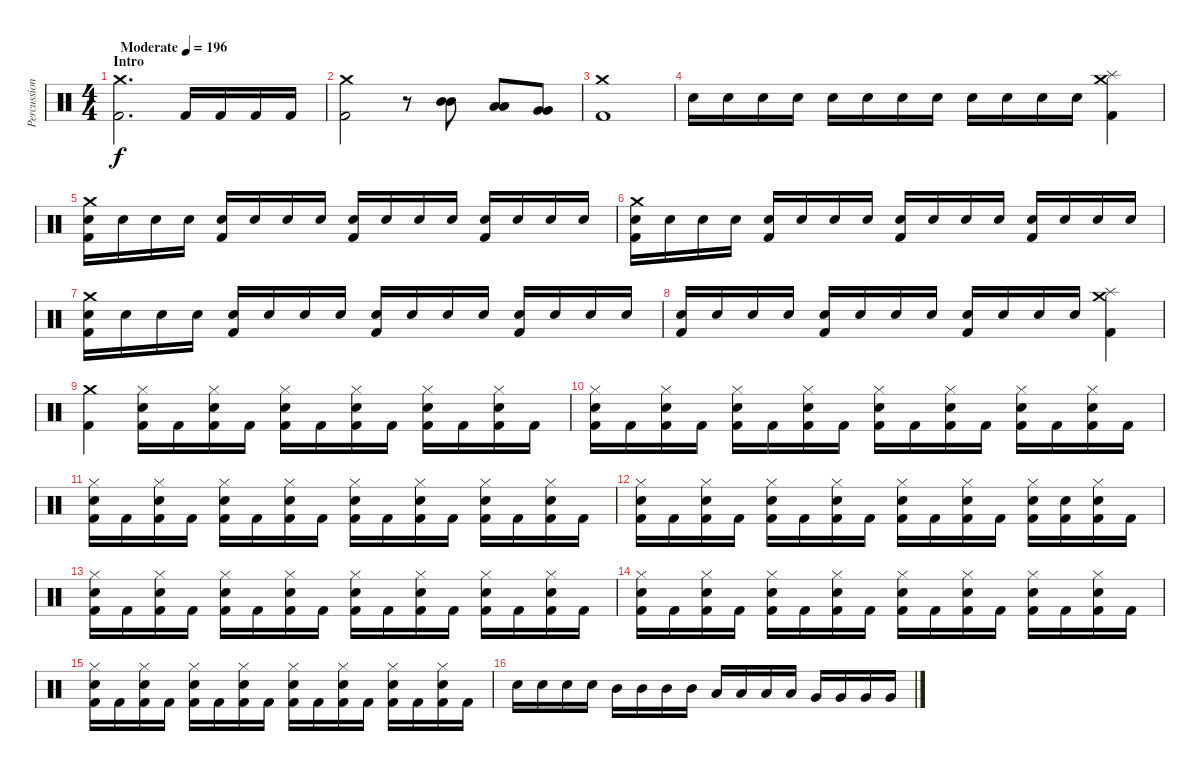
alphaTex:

\track ("Percussion" "Percussion") {instrument percussion}
\staff {score}
\articulation defaults
\ts (4 4)
\section ("" "Intro")
\tempo (196 "Moderate")
\clef neutral
\ks c
("Crash medium (hit)" "Kick (hit) 2").2{d dy f} "Kick (hit) 2".16 "Kick (hit) 2".16 "Kick (hit) 2".16 "Kick (hit) 2".16 |
("Crash medium (hit)" "Kick (hit) 2").2 r.8 ("Mid Tom (hit)" "Mid Tom (hit)").8 ("Low Tom (hit)" "Low Tom (hit)").8 ("Very Low Tom (hit)" "Very Low Tom (hit)").8 |
("Crash medium (hit)" "Kick (hit) 2").1 |
"Electric Snare (hit)".16 "Electric Snare (hit)".16 "Electric Snare (hit)".16 "Electric Snare (hit)".16 "Electric Snare (hit)".16 "Electric Snare (hit)".16 "Electric Snare (hit)".16 "Electric Snare (hit)".16 "Electric Snare (hit)".16 "Electric Snare (hit)".16 "Electric Snare (hit)".16 "Electric Snare (hit)".16 ("Crash medium (hit)" "Splash (hit)" "Kick (hit) 2").4 |
("Crash medium (hit)" "Electric Snare (hit)" "Kick (hit) 2").16 "Electric Snare (hit)".16 "Electric Snare (hit)".16 "Electric Snare (hit)".16 ("Electric Snare (hit)" "Kick (hit) 2").16 "Electric Snare (hit)".16 "Electric Snare (hit)".16 "Electric Snare (hit)".16 ("Electric Snare (hit)" "Kick (hit) 2").16 "Electric Snare (hit)".16 "Electric Snare (hit)".16 "Electric Snare (hit)".16 ("Electric Snare (hit)" "Kick (hit) 2").16 "Electric Snare (hit)".16 "Electric Snare (hit)".16 "Electric Snare (hit)".16 |
("Crash medium (hit)" "Electric Snare (hit)" "Kick (hit) 2").16 "Electric Snare (hit)".16 "Electric Snare (hit)".16 "Electric Snare (hit)".16 ("Electric Snare (hit)" "Kick (hit) 2").16 "Electric Snare (hit)".16 "Electric Snare (hit)".16 "Electric Snare (hit)".16 ("Electric Snare (hit)" "Kick (hit) 2").16 "Electric Snare (hit)".16 "Electric Snare (hit)".16 "Electric Snare (hit)".16 ("Electric Snare (hit)" "Kick (hit) 2").16 "Electric Snare (hit)".16 "Electric Snare (hit)".16 "Electric Snare (hit)".16 |
("Crash medium (hit)" "Electric Snare (hit)" "Kick (hit) 2").16 "Electric Snare (hit)".16 "Electric Snare (hit)".16 "Electric Snare (hit)".16 ("Electric Snare (hit)" "Kick (hit) 2").16 "Electric Snare (hit)".16 "Electric Snare (hit)".16 "Electric Snare (hit)".16 ("Electric Snare (hit)" "Kick (hit) 2").16 "Electric Snare (hit)".16 "Electric Snare (hit)".16 "Electric Snare (hit)".16 ("Electric Snare (hit)" "Kick (hit) 2").16 "Electric Snare (hit)".16 "Electric Snare (hit)".16 "Electric Snare (hit)".16 |
("Electric Snare (hit)" "Kick (hit) 2").16 "Electric Snare (hit)".16 "Electric Snare (hit)".16 "Electric Snare (hit)".16 ("Electric Snare (hit)" "Kick (hit) 2").16 "Electric Snare (hit)".16 "Electric Snare (hit)".16 "Electric Snare (hit)".16 ("Electric Snare (hit)" "Kick (hit) 2").16 "Electric Snare (hit)".16 "Electric Snare (hit)".16 "Electric Snare (hit)".16 ("Crash medium (hit)" "Splash (hit)" "Kick (hit) 2").4 |
("Crash medium (hit)" "Kick (hit) 2").4 ("Hi-Hat (closed)" "Electric Snare (hit)" "Kick (hit) 2").16 "Kick (hit) 2".16 ("Hi-Hat (closed)" "Electric Snare (hit)" "Kick (hit) 2").16 "Kick (hit) 2".16 ("Hi-Hat (closed)" "Electric Snare (hit)" "Kick (hit) 2").16 "Kick (hit) 2".16 ("Hi-Hat (closed)" "Electric Snare (hit)" "Kick (hit) 2").16 "Kick (hit) 2".16 ("Hi-Hat (closed)" "Electric Snare (hit)" "Kick (hit) 2").16 "Kick (hit) 2".16 ("Hi-Hat (closed)" "Electric Snare (hit)" "Kick (hit) 2").16 "Kick (hit) 2".16 |
("Hi-Hat (closed)" "Electric Snare (hit)" "Kick (hit) 2").16 "Kick (hit) 2".16 ("Hi-Hat (closed)" "Electric Snare (hit)" "Kick (hit) 2").16 "Kick (hit) 2".16 ("Hi-Hat (closed)" "Electric Snare (hit)" "Kick (hit) 2").16 "Kick (hit) 2".16 ("Hi-Hat (closed)" "Electric Snare (hit)" "Kick (hit) 2").16 "Kick (hit) 2".16 ("Hi-Hat (closed)" "Electric Snare (hit)" "Kick (hit) 2").16 "Kick (hit) 2".16 ("Hi-Hat (closed)" "Electric Snare (hit)" "Kick (hit) 2").16 "Kick (hit) 2".16 ("Hi-Hat (closed)" "Electric Snare (hit)" "Kick (hit) 2").16 "Kick (hit) 2".16 ("Hi-Hat (closed)" "Electric Snare (hit)" "Kick (hit) 2").16 "Kick (hit) 2".16 |
("Hi-Hat (closed)" "Electric Snare (hit)" "Kick (hit) 2").16 "Kick (hit) 2".16 ("Hi-Hat (closed)" "Electric Snare (hit)" "Kick (hit) 2").16 "Kick (hit) 2".16 ("Hi-Hat (closed)" "Electric Snare (hit)" "Kick (hit) 2").16 "Kick (hit) 2".16 ("Hi-Hat (closed)" "Electric Snare (hit)" "Kick (hit) 2").16 "Kick (hit) 2".16 ("Hi-Hat (closed)" "Electric Snare (hit)" "Kick (hit) 2").16 "Kick (hit) 2".16 ("Hi-Hat (closed)" "Electric Snare (hit)" "Kick (hit) 2").16 "Kick (hit) 2".16 ("Hi-Hat (closed)" "Electric Snare (hit)" "Kick (hit) 2").16 "Kick (hit) 2".16 ("Hi-Hat (closed)" "Electric Snare (hit)" "Kick (hit) 2").16 "Kick (hit) 2".16 |
("Hi-Hat (closed)" "Electric Snare (hit)" "Kick (hit) 2").16 "Kick (hit) 2".16 ("Hi-Hat (closed)" "Electric Snare (hit)" "Kick (hit) 2").16 "Kick (hit) 2".16 ("Hi-Hat (closed)" "Electric Snare (hit)" "Kick (hit) 2").16 "Kick (hit) 2".16 ("Hi-Hat (closed)" "Electric Snare (hit)" "Kick (hit) 2").16 "Kick (hit) 2".16 ("Hi-Hat (closed)" "Electric Snare (hit)" "Kick (hit) 2").16 "Kick (hit) 2".16 ("Hi-Hat (closed)" "Electric Snare (hit)" "Kick (hit) 2").16 "Kick (hit) 2".16 ("Hi-Hat (closed)" "Electric Snare (hit)" "Kick (hit) 2").16 ("Electric Snare (hit)" "Kick (hit) 2").16 ("Hi-Hat (closed)" "Electric Snare (hit)" "Kick (hit) 2").16 "Kick (hit) 2".16 |
("Hi-Hat (closed)" "Electric Snare (hit)" "Kick (hit) 2").16 "Kick (hit) 2".16 ("Hi-Hat (closed)" "Electric Snare (hit)" "Kick (hit) 2").16 "Kick (hit) 2".16 ("Hi-Hat (closed)" "Electric Snare (hit)" "Kick (hit) 2").16 "Kick (hit) 2".16 ("Hi-Hat (closed)" "Electric Snare (hit)" "Kick (hit) 2").16 "Kick (hit) 2".16 ("Hi-Hat (closed)" "Electric Snare (hit)" "Kick (hit) 2").16 "Kick (hit) 2".16 ("Hi-Hat (closed)" "Electric Snare (hit)" "Kick (hit) 2").16 "Kick (hit) 2".16 ("Hi-Hat (closed)" "Electric Snare (hit)" "Kick (hit) 2").16 "Kick (hit) 2".16 ("Hi-Hat (closed)" "Electric Snare (hit)" "Kick (hit) 2").16 "Kick (hit) 2".16 |
("Hi-Hat (closed)" "Electric Snare (hit)" "Kick (hit) 2").16 "Kick (hit) 2".16 ("Hi-Hat (closed)" "Electric Snare (hit)" "Kick (hit) 2").16 "Kick (hit) 2".16 ("Hi-Hat (closed)" "Electric Snare (hit)" "Kick (hit) 2").16 "Kick (hit) 2".16 ("Hi-Hat (closed)" "Electric Snare (hit)" "Kick (hit) 2").16 "Kick (hit) 2".16 ("Hi-Hat (closed)" "Electric Snare (hit)" "Kick (hit) 2").16 "Kick (hit) 2".16 ("Hi-Hat (closed)" "Electric Snare (hit)" "Kick (hit) 2").16 "Kick (hit) 2".16 ("Hi-Hat (closed)" "Electric Snare (hit)" "Kick (hit) 2").16 "Kick (hit) 2".16 ("Hi-Hat (closed)" "Electric Snare (hit)" "Kick (hit) 2").16 "Kick (hit) 2".16 |
("Hi-Hat (closed)" "Electric Snare (hit)" "Kick (hit) 2").16 "Kick (hit) 2".16 ("Hi-Hat (closed)" "Electric Snare (hit)" "Kick (hit) 2").16 "Kick (hit) 2".16 ("Hi-Hat (closed)" "Electric Snare (hit)" "Kick (hit) 2").16 "Kick (hit) 2".16 ("Hi-Hat (closed)" "Electric Snare (hit)" "Kick (hit) 2").16 "Kick (hit) 2".16 ("Hi-Hat (closed)" "Electric Snare (hit)" "Kick (hit) 2").16 "Kick (hit) 2".16 ("Hi-Hat (closed)" "Electric Snare (hit)" "Kick (hit) 2").16 "Kick (hit) 2".16 ("Hi-Hat (closed)" "Electric Snare (hit)" "Kick (hit) 2").16 "Kick (hit) 2".16 ("Hi-Hat (closed)" "Electric Snare (hit)" "Kick (hit) 2").16 "Kick (hit) 2".16 |
"Electric Snare (hit)".16 "Electric Snare (hit)".16 "Electric Snare (hit)".16 "Electric Snare (hit)".16 "Mid Tom (hit)".16 "Mid Tom (hit)".16 "Mid Tom (hit)".16 "Mid Tom (hit)".16 "Low Tom (hit)".16 "Low Tom (hit)".16 "Low Tom (hit)".16 "Low Tom (hit)".16 "Very Low Tom (hit)".16 "Very Low Tom (hit)".16 "Very Low Tom (hit)".16 "Very Low Tom (hit)".16
